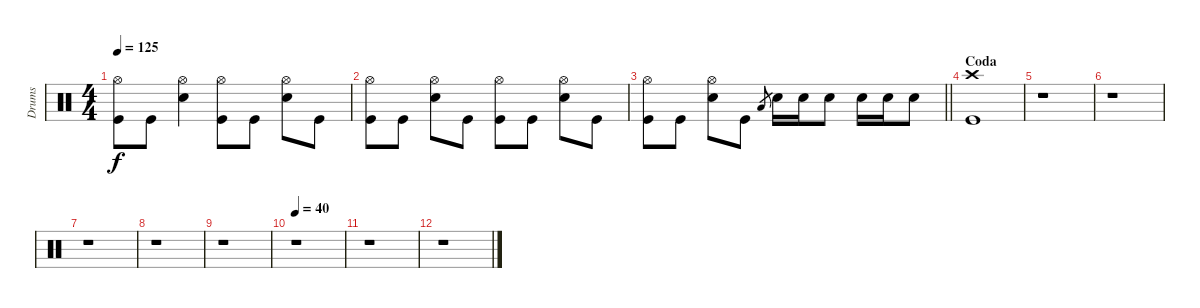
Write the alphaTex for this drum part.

\track ("Drums" "Drums") {instrument percussion}
\staff {score}
\articulation defaults
\ts (4 4)
\tempo 125
\clef neutral
\ks c
("Hi-Hat (open)" "Kick (hit)").8{dy f} "Kick (hit)".8 ("Hi-Hat (open)" "Electric Snare (hit)").4 ("Hi-Hat (open)" "Kick (hit)").8 "Kick (hit)".8 ("Hi-Hat (open)" "Electric Snare (hit)").8 "Kick (hit)".8 |
("Hi-Hat (open)" "Kick (hit)").8 "Kick (hit)".8 ("Hi-Hat (open)" "Electric Snare (hit)").8 "Kick (hit)".8 ("Hi-Hat (open)" "Kick (hit)").8 "Kick (hit)".8 ("Hi-Hat (open)" "Electric Snare (hit)").8 "Kick (hit)".8 |
\barLineRight lightlight
("Hi-Hat (open)" "Kick (hit)").8 "Kick (hit)".8 ("Hi-Hat (open)" "Electric Snare (hit)").8 "Kick (hit)".8 "Low Floor Tom (hit)".8{gr} "Electric Snare (hit)".16 "Electric Snare (hit)".16 "Electric Snare (hit)".8 "Electric Snare (hit)".16 "Electric Snare (hit)".16 "Electric Snare (hit)".8 |
\section ("" "Coda")
("Crash high (hit)" "Kick (hit)").1 |
r.1 |
r.1 |
r.1 |
r.1 |
r.1 |
\tempo 40
r.1 |
r.1 |
r.1
